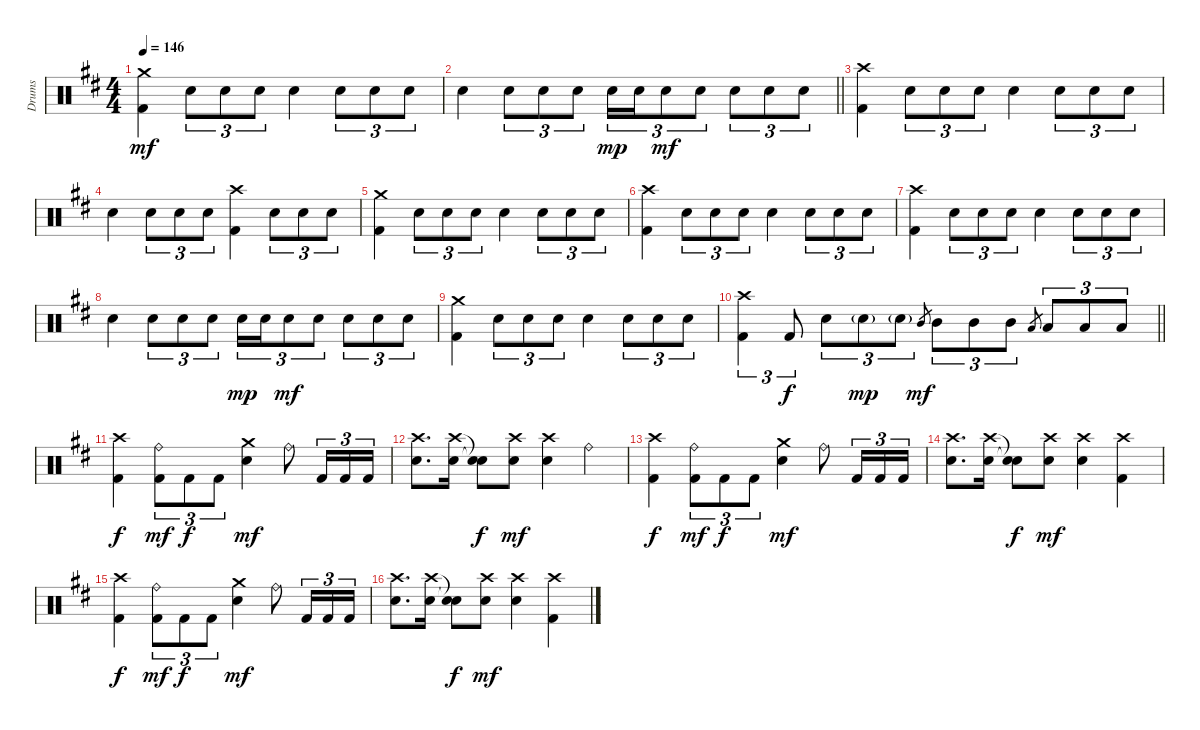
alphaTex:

\track ("Drums" "Drums") {instrument percussion}
\staff {score}
\articulation defaults
\ts (4 4)
\tempo 146
\clef neutral
\ks bminor
("Crash medium (hit)" "Kick (hit) 2").4{dy mf} "Electric Snare (hit)".8{tu (3 2)} "Electric Snare (hit)".8{tu (3 2)} "Electric Snare (hit)".8{tu (3 2)} "Electric Snare (hit)".4 "Electric Snare (hit)".8{tu (3 2)} "Electric Snare (hit)".8{tu (3 2)} "Electric Snare (hit)".8{tu (3 2)} |
\barLineRight lightlight "Electric Snare (hit)".4 "Electric Snare (hit)".8{tu (3 2)} "Electric Snare (hit)".8{tu (3 2)} "Electric Snare (hit)".8{tu (3 2)} "Electric Snare (hit)".16{tu (3 2) dy mp} "Electric Snare (hit)".16{tu (3 2)} "Electric Snare (hit)".8{tu (3 2) dy mf} "Electric Snare (hit)".8{tu (3 2)} "Electric Snare (hit)".8{tu (3 2)} "Electric Snare (hit)".8{tu (3 2)} "Electric Snare (hit)".8{tu (3 2)}
|
\section ("" "")
("Crash high (hit)" "Kick (hit) 2").4 "Electric Snare (hit)".8{tu (3 2)} "Electric Snare (hit)".8{tu (3 2)} "Electric Snare (hit)".8{tu (3 2)} "Electric Snare (hit)".4 "Electric Snare (hit)".8{tu (3 2)} "Electric Snare (hit)".8{tu (3 2)} "Electric Snare (hit)".8{tu (3 2)} |
"Electric Snare (hit)".4 "Electric Snare (hit)".8{tu (3 2)} "Electric Snare (hit)".8{tu (3 2)} "Electric Snare (hit)".8{tu (3 2)} ("Crash high (hit)" "Kick (hit) 2").4 "Electric Snare (hit)".8{tu (3 2)} "Electric Snare (hit)".8{tu (3 2)} "Electric Snare (hit)".8{tu (3 2)} |
("Crash medium (hit)" "Kick (hit) 2").4 "Electric Snare (hit)".8{tu (3 2)} "Electric Snare (hit)".8{tu (3 2)} "Electric Snare (hit)".8{tu (3 2)} "Electric Snare (hit)".4 "Electric Snare (hit)".8{tu (3 2)} "Electric Snare (hit)".8{tu (3 2)} "Electric Snare (hit)".8{tu (3 2)} |
("Crash high (hit)" "Kick (hit) 2").4 "Electric Snare (hit)".8{tu (3 2)} "Electric Snare (hit)".8{tu (3 2)} "Electric Snare (hit)".8{tu (3 2)} "Electric Snare (hit)".4 "Electric Snare (hit)".8{tu (3 2)} "Electric Snare (hit)".8{tu (3 2)} "Electric Snare (hit)".8{tu (3 2)} |
("Crash high (hit)" "Kick (hit) 2").4 "Electric Snare (hit)".8{tu (3 2)} "Electric Snare (hit)".8{tu (3 2)} "Electric Snare (hit)".8{tu (3 2)} "Electric Snare (hit)".4 "Electric Snare (hit)".8{tu (3 2)} "Electric Snare (hit)".8{tu (3 2)} "Electric Snare (hit)".8{tu (3 2)} |
"Electric Snare (hit)".4 "Electric Snare (hit)".8{tu (3 2)} "Electric Snare (hit)".8{tu (3 2)} "Electric Snare (hit)".8{tu (3 2)} "Electric Snare (hit)".16{tu (3 2) dy mp} "Electric Snare (hit)".16{tu (3 2)} "Electric Snare (hit)".8{tu (3 2) dy mf} "Electric Snare (hit)".8{tu (3 2)} "Electric Snare (hit)".8{tu (3 2)} "Electric Snare (hit)".8{tu (3 2)} "Electric Snare (hit)".8{tu (3 2)} |
("Crash medium (hit)" "Kick (hit) 2").4 "Electric Snare (hit)".8{tu (3 2)} "Electric Snare (hit)".8{tu (3 2)} "Electric Snare (hit)".8{tu (3 2)} "Electric Snare (hit)".4 "Electric Snare (hit)".8{tu (3 2)} "Electric Snare (hit)".8{tu (3 2)} "Electric Snare (hit)".8{tu (3 2)} |
\barLineRight lightlight
("Crash high (hit)" "Kick (hit) 2").4{tu (3 2)} "Kick (hit) 2".8{tu (3 2) dy f} "Electric Snare (hit)".8{tu (3 2)} "Electric Snare (hit)"{g}.8{tu (3 2) dy mp} "Electric Snare (hit)"{g}.8{tu (3 2)} "Mid Tom (hit)".8{gr dy mf} "Mid Tom (hit)".8{tu (3 2)} "Mid Tom (hit)".8{tu (3 2)} "Mid Tom (hit)".8{tu (3 2)} "Low Tom (hit)".8{gr} "Low Tom (hit)".8{tu (3 2)} "Low Tom (hit)".8{tu (3 2)} "Low Tom (hit)".8{tu (3 2)} |
\section ("" "")
("Crash high (hit)" "Kick (hit) 2").4{dy f} ("Ride (bell)" "Kick (hit) 2").8{tu (3 2) dy mf} "Kick (hit) 2".8{tu (3 2) dy f} "Kick (hit) 2".8{tu (3 2)} ("Crash medium (hit)" "Electric Snare (hit)").4{dy mf} "Ride (bell)".8 "Kick (hit) 2".16{tu (3 2)} "Kick (hit) 2".16{tu (3 2)} "Kick (hit) 2".16{tu (3 2)} |
("Crash high (hit)" "Electric Snare (hit)").8{d} ("Crash high (hit)" "Electric Snare (hit)").16 ("Snare (hit)"{t} "Snare (hit)"{t}).8{dy f} ("Crash high (hit)" "Electric Snare (hit)").8{dy mf} ("Crash high (hit)" "Electric Snare (hit)").4 "Ride (bell)".4 |
("Crash high (hit)" "Kick (hit) 2").4{dy f} ("Ride (bell)" "Kick (hit) 2").8{tu (3 2) dy mf} "Kick (hit) 2".8{tu (3 2) dy f} "Kick (hit) 2".8{tu (3 2)} ("Crash medium (hit)" "Electric Snare (hit)").4{dy mf} "Ride (bell)".8 "Kick (hit) 2".16{tu (3 2)} "Kick (hit) 2".16{tu (3 2)} "Kick (hit) 2".16{tu (3 2)} |
("Crash high (hit)" "Electric Snare (hit)").8{d} ("Crash high (hit)" "Electric Snare (hit)").16 ("Snare (hit)"{t} "Snare (hit)"{t}).8{dy f} ("Crash high (hit)" "Electric Snare (hit)").8{dy mf} ("Crash high (hit)" "Electric Snare (hit)").4 ("Crash high (hit)" "Kick (hit) 2").4 |
("Crash high (hit)" "Kick (hit) 2").4{dy f} ("Ride (bell)" "Kick (hit) 2").8{tu (3 2) dy mf} "Kick (hit) 2".8{tu (3 2) dy f} "Kick (hit) 2".8{tu (3 2)} ("Crash medium (hit)" "Electric Snare (hit)").4{dy mf} "Ride (bell)".8 "Kick (hit) 2".16{tu (3 2)} "Kick (hit) 2".16{tu (3 2)} "Kick (hit) 2".16{tu (3 2)} |
("Crash high (hit)" "Electric Snare (hit)").8{d} ("Crash high (hit)" "Electric Snare (hit)").16 ("Snare (hit)"{t} "Snare (hit)"{t}).8{dy f} ("Crash high (hit)" "Electric Snare (hit)").8{dy mf} ("Crash high (hit)" "Electric Snare (hit)").4 ("Crash high (hit)" "Kick (hit) 2").4
